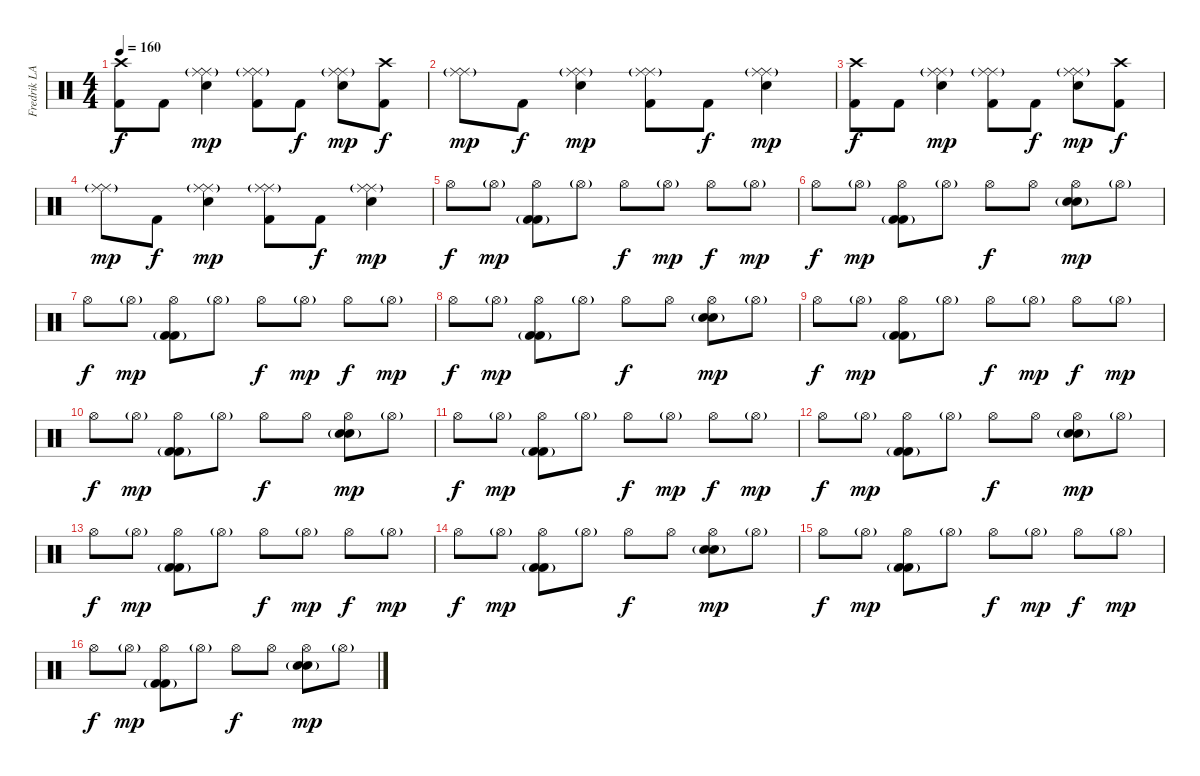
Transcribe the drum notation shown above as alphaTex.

\track ("Fredrik LARZON" "Fredrik LA") {instrument percussion}
\staff {score}
\articulation defaults
\ts (4 4)
\tempo 160
\clef neutral
\ks c
("Crash high (hit)" "Kick (hit) 2").8{dy f} "Kick (hit) 2".8 ("Ride (middle)" "Electric Snare (hit)" "Ride (middle)"{g}).4{dy mp} ("Ride (middle)" "Ride (middle)"{g} "Kick (hit) 2").8 "Kick (hit) 2".8{dy f} ("Ride (middle)" "Electric Snare (hit)" "Ride (middle)"{g}).8{dy mp} ("Crash high (hit)" "Kick (hit) 2").8{dy f} |
("Ride (middle)" "Ride (middle)"{g}).8{dy mp} "Kick (hit) 2".8{dy f} ("Ride (middle)" "Electric Snare (hit)" "Ride (middle)"{g}).4{dy mp} ("Ride (middle)" "Ride (middle)"{g} "Kick (hit) 2").8 "Kick (hit) 2".8{dy f} ("Ride (middle)" "Electric Snare (hit)" "Ride (middle)"{g}).4{dy mp} |
("Crash high (hit)" "Kick (hit) 2").8{dy f} "Kick (hit) 2".8 ("Ride (middle)" "Electric Snare (hit)" "Ride (middle)"{g}).4{dy mp} ("Ride (middle)" "Ride (middle)"{g} "Kick (hit) 2").8 "Kick (hit) 2".8{dy f} ("Ride (middle)" "Electric Snare (hit)" "Ride (middle)"{g}).8{dy mp} ("Crash high (hit)" "Kick (hit) 2").8{dy f} |
("Ride (middle)" "Ride (middle)"{g}).8{dy mp} "Kick (hit) 2".8{dy f} ("Ride (middle)" "Electric Snare (hit)" "Ride (middle)"{g}).4{dy mp} ("Ride (middle)" "Ride (middle)"{g} "Kick (hit) 2").8 "Kick (hit) 2".8{dy f} ("Ride (middle)" "Electric Snare (hit)" "Ride (middle)"{g}).4{dy mp} |
"Hi-Hat (open)".8{dy f} "Hi-Hat (open)"{g}.8{dy mp} ("Hi-Hat (open)" "Kick (hit) 2"{g} "Kick (hit) 2").8 "Hi-Hat (open)"{g}.8 "Hi-Hat (open)".8{dy f} "Hi-Hat (open)"{g}.8{dy mp} "Hi-Hat (open)".8{dy f} "Hi-Hat (open)"{g}.8{dy mp} |
"Hi-Hat (open)".8{dy f} "Hi-Hat (open)"{g}.8{dy mp} ("Hi-Hat (open)" "Kick (hit) 2"{g} "Kick (hit) 2").8 "Hi-Hat (open)"{g}.8 "Hi-Hat (open)".8{dy f} "Hi-Hat (open)".8 ("Hi-Hat (open)" "Electric Snare (hit)" "Electric Snare (hit)"{g}).8{dy mp} "Hi-Hat (open)"{g}.8 |
"Hi-Hat (open)".8{dy f} "Hi-Hat (open)"{g}.8{dy mp} ("Hi-Hat (open)" "Kick (hit) 2"{g} "Kick (hit) 2").8 "Hi-Hat (open)"{g}.8 "Hi-Hat (open)".8{dy f} "Hi-Hat (open)"{g}.8{dy mp} "Hi-Hat (open)".8{dy f} "Hi-Hat (open)"{g}.8{dy mp} |
"Hi-Hat (open)".8{dy f} "Hi-Hat (open)"{g}.8{dy mp} ("Hi-Hat (open)" "Kick (hit) 2"{g} "Kick (hit) 2").8 "Hi-Hat (open)"{g}.8 "Hi-Hat (open)".8{dy f} "Hi-Hat (open)".8 ("Hi-Hat (open)" "Electric Snare (hit)" "Electric Snare (hit)"{g}).8{dy mp} "Hi-Hat (open)"{g}.8 |
"Hi-Hat (open)".8{dy f} "Hi-Hat (open)"{g}.8{dy mp} ("Hi-Hat (open)" "Kick (hit) 2"{g} "Kick (hit) 2").8 "Hi-Hat (open)"{g}.8 "Hi-Hat (open)".8{dy f} "Hi-Hat (open)"{g}.8{dy mp} "Hi-Hat (open)".8{dy f} "Hi-Hat (open)"{g}.8{dy mp} |
"Hi-Hat (open)".8{dy f} "Hi-Hat (open)"{g}.8{dy mp} ("Hi-Hat (open)" "Kick (hit) 2"{g} "Kick (hit) 2").8 "Hi-Hat (open)"{g}.8 "Hi-Hat (open)".8{dy f} "Hi-Hat (open)".8 ("Hi-Hat (open)" "Electric Snare (hit)" "Electric Snare (hit)"{g}).8{dy mp} "Hi-Hat (open)"{g}.8 |
"Hi-Hat (open)".8{dy f} "Hi-Hat (open)"{g}.8{dy mp} ("Hi-Hat (open)" "Kick (hit) 2"{g} "Kick (hit) 2").8 "Hi-Hat (open)"{g}.8 "Hi-Hat (open)".8{dy f} "Hi-Hat (open)"{g}.8{dy mp} "Hi-Hat (open)".8{dy f} "Hi-Hat (open)"{g}.8{dy mp} |
"Hi-Hat (open)".8{dy f} "Hi-Hat (open)"{g}.8{dy mp} ("Hi-Hat (open)" "Kick (hit) 2"{g} "Kick (hit) 2").8 "Hi-Hat (open)"{g}.8 "Hi-Hat (open)".8{dy f} "Hi-Hat (open)".8 ("Hi-Hat (open)" "Electric Snare (hit)" "Electric Snare (hit)"{g}).8{dy mp} "Hi-Hat (open)"{g}.8 |
"Hi-Hat (open)".8{dy f} "Hi-Hat (open)"{g}.8{dy mp} ("Hi-Hat (open)" "Kick (hit) 2"{g} "Kick (hit) 2").8 "Hi-Hat (open)"{g}.8 "Hi-Hat (open)".8{dy f} "Hi-Hat (open)"{g}.8{dy mp} "Hi-Hat (open)".8{dy f} "Hi-Hat (open)"{g}.8{dy mp} |
"Hi-Hat (open)".8{dy f} "Hi-Hat (open)"{g}.8{dy mp} ("Hi-Hat (open)" "Kick (hit) 2"{g} "Kick (hit) 2").8 "Hi-Hat (open)"{g}.8 "Hi-Hat (open)".8{dy f} "Hi-Hat (open)".8 ("Hi-Hat (open)" "Electric Snare (hit)" "Electric Snare (hit)"{g}).8{dy mp} "Hi-Hat (open)"{g}.8 |
"Hi-Hat (open)".8{dy f} "Hi-Hat (open)"{g}.8{dy mp} ("Hi-Hat (open)" "Kick (hit) 2"{g} "Kick (hit) 2").8 "Hi-Hat (open)"{g}.8 "Hi-Hat (open)".8{dy f} "Hi-Hat (open)"{g}.8{dy mp} "Hi-Hat (open)".8{dy f} "Hi-Hat (open)"{g}.8{dy mp} |
"Hi-Hat (open)".8{dy f} "Hi-Hat (open)"{g}.8{dy mp} ("Hi-Hat (open)" "Kick (hit) 2"{g} "Kick (hit) 2").8 "Hi-Hat (open)"{g}.8 "Hi-Hat (open)".8{dy f} "Hi-Hat (open)".8 ("Hi-Hat (open)" "Electric Snare (hit)" "Electric Snare (hit)"{g}).8{dy mp} "Hi-Hat (open)"{g}.8
